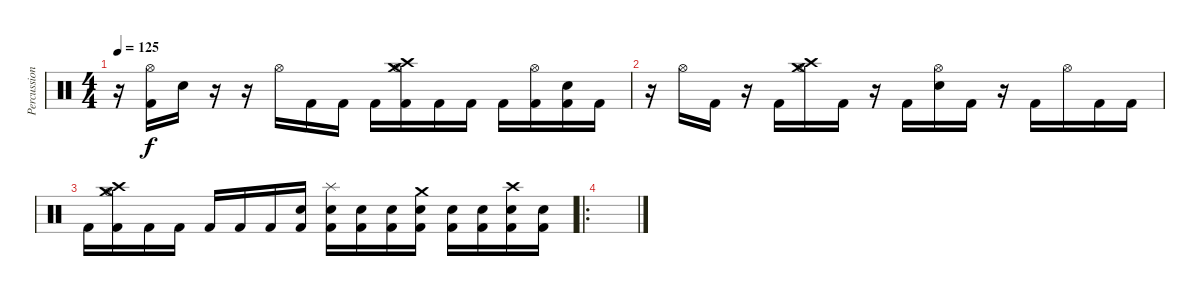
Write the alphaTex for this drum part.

\track ("Percussion" "Percussion") {instrument percussion}
\staff {score}
\articulation defaults
\ts (4 4)
\tempo 125
\clef neutral
\ks c
r.16{dy f} ("Hi-Hat (open)" "Kick (hit) 2").16 "Electric Snare (hit)".16 r.16 r.16 "Hi-Hat (open)".16 "Kick (hit) 2".16 "Kick (hit) 2".16 "Kick (hit) 2".16 ("Crash medium (hit)" "Hi-Hat (open)" "Crash high (hit)" "Kick (hit) 2").16 "Kick (hit) 2".16 "Kick (hit) 2".16 "Kick (hit) 2".16 ("Hi-Hat (open)" "Kick (hit) 2").16 ("Electric Snare (hit)" "Kick (hit) 2").16 "Kick (hit) 2".16 |
r.16 "Hi-Hat (open)".16 "Kick (hit) 2".16 r.16 "Kick (hit) 2".16 ("Crash medium (hit)" "Hi-Hat (open)" "Crash high (hit)").16 "Kick (hit) 2".16 r.16 "Kick (hit) 2".16 ("Hi-Hat (open)" "Electric Snare (hit)").16 "Kick (hit) 2".16 r.16 "Kick (hit) 2".16 "Hi-Hat (open)".16 "Kick (hit) 2".16 "Kick (hit) 2".16 |
"Kick (hit) 2".16 ("Crash medium (hit)" "Hi-Hat (open)" "Crash high (hit)" "Kick (hit) 2").16 "Kick (hit) 2".16 "Kick (hit) 2".16 "Kick (hit) 2".16 "Kick (hit) 2".16 "Kick (hit) 2".16 ("Electric Snare (hit)" "Kick (hit) 2").16 ("Splash (hit)" "Electric Snare (hit)" "Kick (hit) 2").16 ("Electric Snare (hit)" "Kick (hit) 2").16 ("Electric Snare (hit)" "Kick (hit) 2").16 ("Crash medium (hit)" "Electric Snare (hit)" "Kick (hit) 2").16 ("Electric Snare (hit)" "Kick (hit) 2").16 ("Electric Snare (hit)" "Kick (hit) 2").16 ("Crash high (hit)" "Electric Snare (hit)" "Kick (hit) 2").16 ("Electric Snare (hit)" "Kick (hit) 2").16 |
\ro
